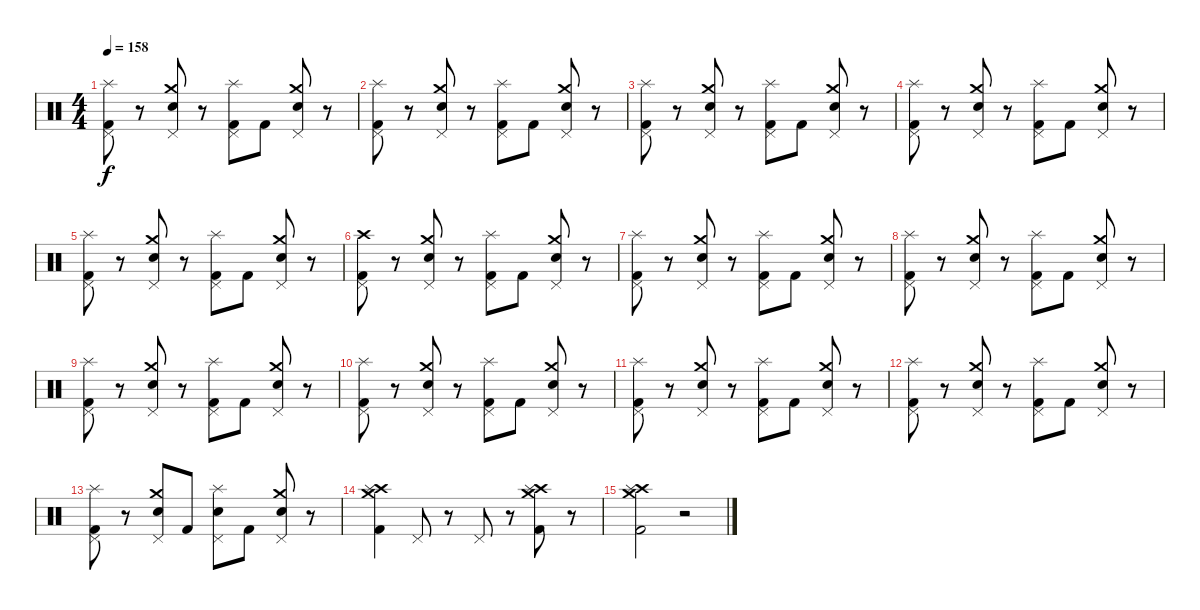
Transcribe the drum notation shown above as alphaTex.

\track "" {instrument percussion}
\staff {score}
\articulation defaults
\ts (4 4)
\tempo 158
\clef neutral
\ks c
("Splash (hit)" "Pedal Hi-Hat (hit)" "Kick (hit) 2").8{dy f} r.8 ("Crash medium (hit)" "Pedal Hi-Hat (hit)" "Electric Snare (hit)").8 r.8 ("Splash (hit)" "Pedal Hi-Hat (hit)" "Kick (hit) 2").8 "Kick (hit) 2".8 ("Crash medium (hit)" "Pedal Hi-Hat (hit)" "Electric Snare (hit)").8 r.8 |
("Splash (hit)" "Pedal Hi-Hat (hit)" "Kick (hit) 2").8 r.8 ("Crash medium (hit)" "Pedal Hi-Hat (hit)" "Electric Snare (hit)").8 r.8 ("Splash (hit)" "Pedal Hi-Hat (hit)" "Kick (hit) 2").8 "Kick (hit) 2".8 ("Crash medium (hit)" "Pedal Hi-Hat (hit)" "Electric Snare (hit)").8 r.8 |
("Splash (hit)" "Pedal Hi-Hat (hit)" "Kick (hit) 2").8 r.8 ("Crash medium (hit)" "Pedal Hi-Hat (hit)" "Electric Snare (hit)").8 r.8 ("Splash (hit)" "Pedal Hi-Hat (hit)" "Kick (hit) 2").8 "Kick (hit) 2".8 ("Crash medium (hit)" "Pedal Hi-Hat (hit)" "Electric Snare (hit)").8 r.8 |
("Splash (hit)" "Pedal Hi-Hat (hit)" "Kick (hit) 2").8 r.8 ("Crash medium (hit)" "Pedal Hi-Hat (hit)" "Electric Snare (hit)").8 r.8 ("Splash (hit)" "Pedal Hi-Hat (hit)" "Kick (hit) 2").8 "Kick (hit) 2".8 ("Crash medium (hit)" "Pedal Hi-Hat (hit)" "Electric Snare (hit)").8 r.8 |
("Splash (hit)" "Pedal Hi-Hat (hit)" "Kick (hit) 2").8 r.8 ("Crash medium (hit)" "Pedal Hi-Hat (hit)" "Electric Snare (hit)").8 r.8 ("Splash (hit)" "Pedal Hi-Hat (hit)" "Kick (hit) 2").8 "Kick (hit) 2".8 ("Crash medium (hit)" "Pedal Hi-Hat (hit)" "Electric Snare (hit)").8 r.8 |
("Crash high (hit)" "Pedal Hi-Hat (hit)" "Kick (hit) 2").8 r.8 ("Crash medium (hit)" "Pedal Hi-Hat (hit)" "Electric Snare (hit)").8 r.8 ("Splash (hit)" "Pedal Hi-Hat (hit)" "Kick (hit) 2").8 "Kick (hit) 2".8 ("Crash medium (hit)" "Pedal Hi-Hat (hit)" "Electric Snare (hit)").8 r.8 |
("Splash (hit)" "Pedal Hi-Hat (hit)" "Kick (hit) 2").8 r.8 ("Crash medium (hit)" "Pedal Hi-Hat (hit)" "Electric Snare (hit)").8 r.8 ("Splash (hit)" "Pedal Hi-Hat (hit)" "Kick (hit) 2").8 "Kick (hit) 2".8 ("Crash medium (hit)" "Pedal Hi-Hat (hit)" "Electric Snare (hit)").8 r.8 |
("Splash (hit)" "Pedal Hi-Hat (hit)" "Kick (hit) 2").8 r.8 ("Crash medium (hit)" "Pedal Hi-Hat (hit)" "Electric Snare (hit)").8 r.8 ("Splash (hit)" "Pedal Hi-Hat (hit)" "Kick (hit) 2").8 "Kick (hit) 2".8 ("Crash medium (hit)" "Pedal Hi-Hat (hit)" "Electric Snare (hit)").8 r.8 |
("Splash (hit)" "Pedal Hi-Hat (hit)" "Kick (hit) 2").8 r.8 ("Crash medium (hit)" "Pedal Hi-Hat (hit)" "Electric Snare (hit)").8 r.8 ("Splash (hit)" "Pedal Hi-Hat (hit)" "Kick (hit) 2").8 "Kick (hit) 2".8 ("Crash medium (hit)" "Pedal Hi-Hat (hit)" "Electric Snare (hit)").8 r.8 |
("Splash (hit)" "Pedal Hi-Hat (hit)" "Kick (hit) 2").8 r.8 ("Crash medium (hit)" "Pedal Hi-Hat (hit)" "Electric Snare (hit)").8 r.8 ("Splash (hit)" "Pedal Hi-Hat (hit)" "Kick (hit) 2").8 "Kick (hit) 2".8 ("Crash medium (hit)" "Pedal Hi-Hat (hit)" "Electric Snare (hit)").8 r.8 |
("Splash (hit)" "Pedal Hi-Hat (hit)" "Kick (hit) 2").8 r.8 ("Crash medium (hit)" "Pedal Hi-Hat (hit)" "Electric Snare (hit)").8 r.8 ("Splash (hit)" "Pedal Hi-Hat (hit)" "Kick (hit) 2").8 "Kick (hit) 2".8 ("Crash medium (hit)" "Pedal Hi-Hat (hit)" "Electric Snare (hit)").8 r.8 |
("Splash (hit)" "Pedal Hi-Hat (hit)" "Kick (hit) 2").8 r.8 ("Crash medium (hit)" "Pedal Hi-Hat (hit)" "Electric Snare (hit)").8 r.8 ("Splash (hit)" "Pedal Hi-Hat (hit)" "Kick (hit) 2").8 "Kick (hit) 2".8 ("Crash medium (hit)" "Pedal Hi-Hat (hit)" "Electric Snare (hit)").8 r.8 |
("Splash (hit)" "Pedal Hi-Hat (hit)" "Kick (hit) 2").8 r.8 ("Crash medium (hit)" "Pedal Hi-Hat (hit)" "Electric Snare (hit)").8 "Kick (hit) 2".8 ("Splash (hit)" "Pedal Hi-Hat (hit)" "Electric Snare (hit)").8 "Kick (hit) 2".8 ("Crash medium (hit)" "Pedal Hi-Hat (hit)" "Electric Snare (hit)").8 r.8 |
("Crash high (hit)" "Splash (hit)" "Crash medium (hit)" "Kick (hit) 2").4 "Pedal Hi-Hat (hit)".8 r.8 "Pedal Hi-Hat (hit)".8 r.8 ("Crash high (hit)" "Splash (hit)" "Crash medium (hit)" "Kick (hit) 2").8 r.8 |
("Crash high (hit)" "Splash (hit)" "Crash medium (hit)" "Kick (hit) 2").2 r.2
